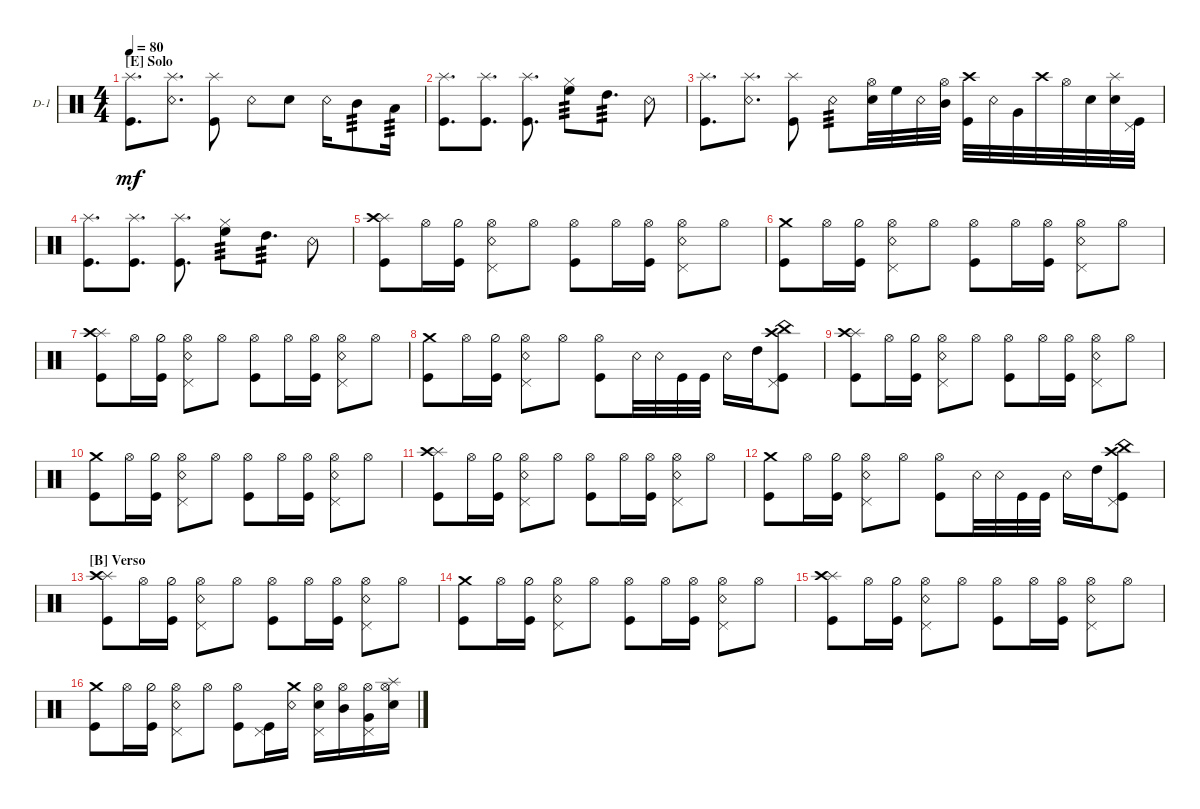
\defaultSystemsLayout 4
\bracketExtendMode groupsimilarinstruments
\firstSystemTrackNameOrientation horizontal
\otherSystemsTrackNameOrientation horizontal
\track ("Drums" "D-1") {multiBarRest instrument percussion}
\staff {score}
\articulation defaults
\ts (4 4)
\section ("E" "Solo")
\tempo 80
\clef neutral
\ks aminor
("Splash (hit)" "Kick (hit)").8{d dy mf} ("Splash (hit)" "Snare (rim shot)").8{d} ("Kick (hit)" "Splash (hit)").8 "Snare (rim shot)".8 "Snare (hit) 2".8 "Snare (rim shot)".16 "Mid Tom (hit)".8{tp 3} "Low Tom (hit)".16{tp 3} |
("Kick (hit)" "Splash (hit)").8{d} ("Kick (hit)" "Splash (hit)").8{d} ("Kick (hit)" "Splash (hit)").8{d} ("Hi-Hat (closed)" "High Floor Tom (hit)").8{tp 3} "High Tom (hit)".8{d tp 3} "Snare (rim shot)".8 |
("Splash (hit)" "Kick (hit)").8{d} ("Splash (hit)" "Snare (rim shot)").8{d} ("Kick (hit)" "Splash (hit)").8 "Snare (rim shot)".8{tp 3} ("Snare (hit) 2" "Hi-Hat (open)").32 "High Floor Tom (hit)".32 "Snare (rim shot)".32 ("Mid Tom (hit)" "Hi-Hat (open)").32 ("Crash high (hit)" "Kick (hit)").32 "Snare (rim shot)".32 "Very Low Tom (hit)".32 "Crash high (hit)".32 "Hi-Hat (open)".32 "Snare (hit) 2".32 ("Snare (hit) 2" "Splash (hit)").32 ("Kick (hit)" "Pedal Hi-Hat (hit)").32 |
("Kick (hit)" "Splash (hit)").8{d} ("Kick (hit)" "Splash (hit)").8{d} ("Kick (hit)" "Splash (hit)").8{d} ("Hi-Hat (closed)" "High Floor Tom (hit)").8{tp 3} "High Tom (hit)".8{d tp 3} "Snare (rim shot)".8 |
("Kick (hit)" "Splash (hit)" "Crash high (hit)").8 "Hi-Hat (open)".16 ("Hi-Hat (half)" "Kick (hit)").16 ("Hi-Hat (open)" "Pedal Hi-Hat (hit)" "Snare (rim shot)").8 "Hi-Hat (open)".8 ("Kick (hit)" "Hi-Hat (open)").8 "Hi-Hat (open)".16 ("Hi-Hat (open)" "Kick (hit)").16 ("Hi-Hat (open)" "Pedal Hi-Hat (hit)" "Snare (rim shot)").8 "Hi-Hat (open)".8 |
("Kick (hit)" "Crash medium (hit)").8 "Hi-Hat (open)".16 ("Hi-Hat (half)" "Kick (hit)").16 ("Hi-Hat (open)" "Pedal Hi-Hat (hit)" "Snare (rim shot)").8 "Hi-Hat (open)".8 ("Kick (hit)" "Hi-Hat (open)").8 "Hi-Hat (open)".16 ("Hi-Hat (open)" "Kick (hit)").16 ("Hi-Hat (open)" "Pedal Hi-Hat (hit)" "Snare (rim shot)").8 "Hi-Hat (open)".8 |
("Kick (hit)" "Splash (hit)" "Crash high (hit)").8 "Hi-Hat (open)".16 ("Hi-Hat (half)" "Kick (hit)").16 ("Hi-Hat (open)" "Pedal Hi-Hat (hit)" "Snare (rim shot)").8 "Hi-Hat (open)".8 ("Kick (hit)" "Hi-Hat (open)").8 "Hi-Hat (open)".16 ("Hi-Hat (open)" "Kick (hit)").16 ("Hi-Hat (open)" "Pedal Hi-Hat (hit)" "Snare (rim shot)").8 "Hi-Hat (open)".8 |
("Kick (hit)" "Crash medium (hit)").8 "Hi-Hat (open)".16 ("Hi-Hat (half)" "Kick (hit)").16 ("Hi-Hat (open)" "Pedal Hi-Hat (hit)" "Snare (rim shot)").8 "Hi-Hat (open)".8 ("Kick (hit)" "Hi-Hat (open)").8 "Snare (rim shot)".32 "Snare (rim shot)".32 "Kick (hit)".32 "Kick (hit)".32 "Snare (rim shot)".16 "High Tom (hit)".16 ("Kick (hit)" "Pedal Hi-Hat (hit)" "Crash high (hit)" "China (hit)").8 |
("Kick (hit)" "Splash (hit)" "Crash high (hit)").8 "Hi-Hat (open)".16 ("Hi-Hat (half)" "Kick (hit)").16 ("Hi-Hat (open)" "Pedal Hi-Hat (hit)" "Snare (rim shot)").8 "Hi-Hat (open)".8 ("Kick (hit)" "Hi-Hat (open)").8 "Hi-Hat (open)".16 ("Hi-Hat (open)" "Kick (hit)").16 ("Hi-Hat (open)" "Pedal Hi-Hat (hit)" "Snare (rim shot)").8 "Hi-Hat (open)".8 |
("Kick (hit)" "Crash medium (hit)").8 "Hi-Hat (open)".16 ("Hi-Hat (half)" "Kick (hit)").16 ("Hi-Hat (open)" "Pedal Hi-Hat (hit)" "Snare (rim shot)").8 "Hi-Hat (open)".8 ("Kick (hit)" "Hi-Hat (open)").8 "Hi-Hat (open)".16 ("Hi-Hat (open)" "Kick (hit)").16 ("Hi-Hat (open)" "Pedal Hi-Hat (hit)" "Snare (rim shot)").8 "Hi-Hat (open)".8 |
("Kick (hit)" "Splash (hit)" "Crash high (hit)").8 "Hi-Hat (open)".16 ("Hi-Hat (half)" "Kick (hit)").16 ("Hi-Hat (open)" "Pedal Hi-Hat (hit)" "Snare (rim shot)").8 "Hi-Hat (open)".8 ("Kick (hit)" "Hi-Hat (open)").8 "Hi-Hat (open)".16 ("Hi-Hat (open)" "Kick (hit)").16 ("Hi-Hat (open)" "Pedal Hi-Hat (hit)" "Snare (rim shot)").8 "Hi-Hat (open)".8 |
("Kick (hit)" "Crash medium (hit)").8 "Hi-Hat (open)".16 ("Hi-Hat (half)" "Kick (hit)").16 ("Hi-Hat (open)" "Pedal Hi-Hat (hit)" "Snare (rim shot)").8 "Hi-Hat (open)".8 ("Kick (hit)" "Hi-Hat (open)").8 "Snare (rim shot)".32 "Snare (rim shot)".32 "Kick (hit)".32 "Kick (hit)".32 "Snare (rim shot)".16 "High Tom (hit)".16 ("Kick (hit)" "Pedal Hi-Hat (hit)" "Crash high (hit)" "China (hit)").8 |
\section ("B" "Verso")
("Kick (hit)" "Splash (hit)" "Crash high (hit)").8 "Hi-Hat (open)".16 ("Hi-Hat (half)" "Kick (hit)").16 ("Hi-Hat (open)" "Pedal Hi-Hat (hit)" "Snare (rim shot)").8 "Hi-Hat (open)".8 ("Kick (hit)" "Hi-Hat (open)").8 "Hi-Hat (open)".16 ("Hi-Hat (open)" "Kick (hit)").16 ("Hi-Hat (open)" "Pedal Hi-Hat (hit)" "Snare (rim shot)").8 "Hi-Hat (open)".8 |
("Kick (hit)" "Crash medium (hit)").8 "Hi-Hat (open)".16 ("Hi-Hat (half)" "Kick (hit)").16 ("Hi-Hat (open)" "Pedal Hi-Hat (hit)" "Snare (rim shot)").8 "Hi-Hat (open)".8 ("Kick (hit)" "Hi-Hat (open)").8 "Hi-Hat (open)".16 ("Hi-Hat (open)" "Kick (hit)").16 ("Hi-Hat (open)" "Pedal Hi-Hat (hit)" "Snare (rim shot)").8 "Hi-Hat (open)".8 |
("Kick (hit)" "Splash (hit)" "Crash high (hit)").8 "Hi-Hat (open)".16 ("Hi-Hat (half)" "Kick (hit)").16 ("Hi-Hat (open)" "Pedal Hi-Hat (hit)" "Snare (rim shot)").8 "Hi-Hat (open)".8 ("Kick (hit)" "Hi-Hat (open)").8 "Hi-Hat (open)".16 ("Hi-Hat (open)" "Kick (hit)").16 ("Hi-Hat (open)" "Pedal Hi-Hat (hit)" "Snare (rim shot)").8 "Hi-Hat (open)".8 |
("Kick (hit)" "Crash medium (hit)").8 "Hi-Hat (open)".16 ("Hi-Hat (half)" "Kick (hit)").16 ("Hi-Hat (open)" "Pedal Hi-Hat (hit)" "Snare (rim shot)").8 "Hi-Hat (open)".8 ("Kick (hit)" "Hi-Hat (open)").8 ("Kick (hit)" "Pedal Hi-Hat (hit)").16 ("Snare (rim shot)" "Crash medium (hit)").16 ("Snare (hit) 2" "Pedal Hi-Hat (hit)" "Hi-Hat (open)").16 ("Mid Tom (hit)" "Hi-Hat (open)").16 ("Very Low Tom (hit)" "Pedal Hi-Hat (hit)" "Hi-Hat (open)").16 ("Snare (hit) 2" "Hi-Hat (open)" "Splash (hit)").16
